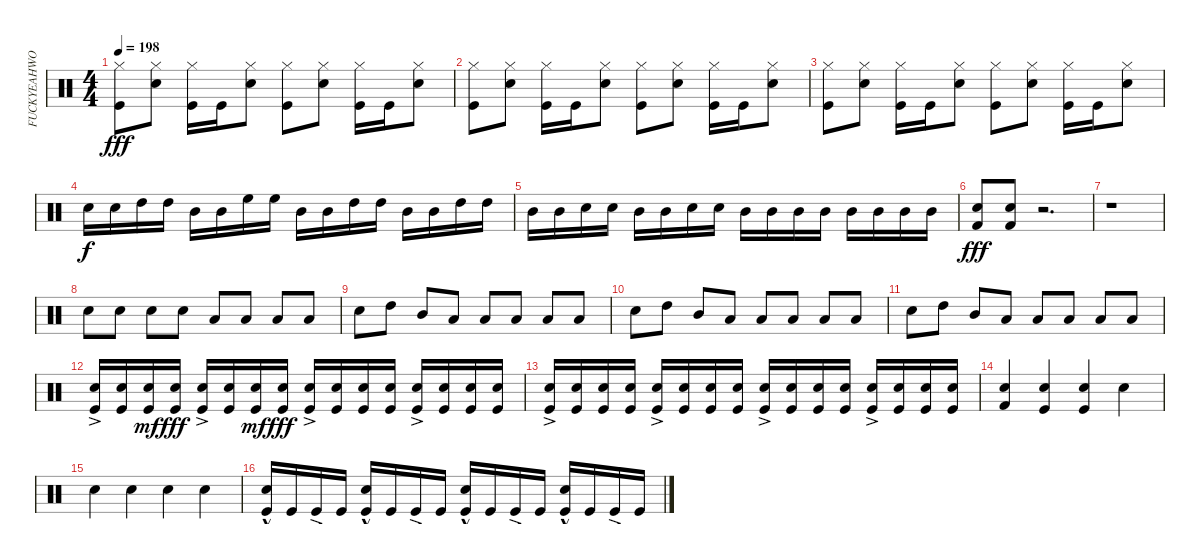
\track ("FUCKYEAHWOOTDAVEMACKINTOSH!(Percussion)" "FUCKYEAHWO") {instrument percussion}
\staff {score}
\articulation defaults
\ts (4 4)
\tempo 198
\clef neutral
\ks c
("Kick (hit)" "Hi-Hat (closed)").8{dy fff} ("Snare (hit) 2" "Hi-Hat (closed)").8 ("Kick (hit)" "Hi-Hat (closed)").16 "Kick (hit)".16 ("Hi-Hat (closed)" "Snare (hit) 2").8 ("Kick (hit)" "Hi-Hat (closed)").8 ("Snare (hit) 2" "Hi-Hat (closed)").8 ("Kick (hit)" "Hi-Hat (closed)").16 "Kick (hit)".16 ("Snare (hit) 2" "Hi-Hat (closed)").8 |
("Kick (hit)" "Hi-Hat (closed)").8 ("Snare (hit) 2" "Hi-Hat (closed)").8 ("Kick (hit)" "Hi-Hat (closed)").16 "Kick (hit)".16 ("Hi-Hat (closed)" "Snare (hit) 2").8 ("Kick (hit)" "Hi-Hat (closed)").8 ("Snare (hit) 2" "Hi-Hat (closed)").8 ("Kick (hit)" "Hi-Hat (closed)").16 "Kick (hit)".16 ("Snare (hit) 2" "Hi-Hat (closed)").8 |
("Kick (hit)" "Hi-Hat (closed)").8 ("Snare (hit) 2" "Hi-Hat (closed)").8 ("Kick (hit)" "Hi-Hat (closed)").16 "Kick (hit)".16 ("Hi-Hat (closed)" "Snare (hit) 2").8 ("Kick (hit)" "Hi-Hat (closed)").8 ("Snare (hit) 2" "Hi-Hat (closed)").8 ("Kick (hit)" "Hi-Hat (closed)").16 "Kick (hit)".16 ("Snare (hit) 2" "Hi-Hat (closed)").8 |
"Snare (hit) 2".16{dy f} "Snare (hit) 2".16 "High Tom (hit)".16 "High Tom (hit)".16 "Mid Tom (hit)".16 "Mid Tom (hit)".16 "High Floor Tom (hit)".16 "High Floor Tom (hit)".16 "Mid Tom (hit)".16 "Mid Tom (hit)".16 "High Tom (hit)".16 "High Tom (hit)".16 "Mid Tom (hit)".16 "Mid Tom (hit)".16 "High Tom (hit)".16 "High Tom (hit)".16 |
"Mid Tom (hit)".16 "Mid Tom (hit)".16 "Snare (hit) 2".16 "Snare (hit) 2".16 "Mid Tom (hit)".16 "Mid Tom (hit)".16 "Snare (hit) 2".16 "Snare (hit) 2".16 "Mid Tom (hit)".16 "Mid Tom (hit)".16 "Mid Tom (hit)".16 "Mid Tom (hit)".16 "Mid Tom (hit)".16 "Mid Tom (hit)".16 "Mid Tom (hit)".16 "Mid Tom (hit)".16 |
("Snare (hit) 2" "Kick (hit) 2").8{dy fff} ("Snare (hit) 2" "Kick (hit) 2").8 r.2{d} |
r.1 |
"Snare (hit) 2".8 "Snare (hit) 2".8 "Snare (hit) 2".8 "Snare (hit) 2".8 "Low Tom (hit)".8 "Low Tom (hit)".8 "Low Tom (hit)".8 "Low Tom (hit)".8 |
"Snare (hit) 2".8 "High Tom (hit)".8 "Mid Tom (hit)".8 "Low Tom (hit)".8 "Low Tom (hit)".8 "Low Tom (hit)".8 "Low Tom (hit)".8 "Low Tom (hit)".8 |
"Snare (hit) 2".8 "High Tom (hit)".8 "Mid Tom (hit)".8 "Low Tom (hit)".8 "Low Tom (hit)".8 "Low Tom (hit)".8 "Low Tom (hit)".8 "Low Tom (hit)".8 |
"Snare (hit) 2".8 "High Tom (hit)".8 "Mid Tom (hit)".8 "Low Tom (hit)".8 "Low Tom (hit)".8 "Low Tom (hit)".8 "Low Tom (hit)".8 "Low Tom (hit)".8 |
("Snare (hit) 2"{ac} "Kick (hit)").16 ("Snare (hit) 2" "Kick (hit)").16 ("Kick (hit)" "Snare (hit) 2").16{dy mf} ("Snare (hit) 2" "Kick (hit)").16{dy fff} ("Snare (hit) 2"{ac} "Kick (hit)").16 ("Snare (hit) 2" "Kick (hit)").16 ("Kick (hit)" "Snare (hit) 2").16{dy mf} ("Snare (hit) 2" "Kick (hit)").16{dy fff} ("Snare (hit) 2"{ac} "Kick (hit)").16 ("Snare (hit) 2" "Kick (hit)").16 ("Snare (hit) 2" "Kick (hit)").16 ("Snare (hit) 2" "Kick (hit)").16 ("Snare (hit) 2"{ac} "Kick (hit)").16 ("Snare (hit) 2" "Kick (hit)").16 ("Snare (hit) 2" "Kick (hit)").16 ("Snare (hit) 2" "Kick (hit)").16 |
("Snare (hit) 2"{ac} "Kick (hit)").16 ("Snare (hit) 2" "Kick (hit)").16 ("Snare (hit) 2" "Kick (hit)").16 ("Snare (hit) 2" "Kick (hit)").16 ("Snare (hit) 2"{ac} "Kick (hit)").16 ("Snare (hit) 2" "Kick (hit)").16 ("Snare (hit) 2" "Kick (hit)").16 ("Snare (hit) 2" "Kick (hit)").16 ("Snare (hit) 2"{ac} "Kick (hit)").16 ("Snare (hit) 2" "Kick (hit)").16 ("Snare (hit) 2" "Kick (hit)").16 ("Snare (hit) 2" "Kick (hit)").16 ("Snare (hit) 2"{ac} "Kick (hit)").16 ("Snare (hit) 2" "Kick (hit)").16 ("Snare (hit) 2" "Kick (hit)").16 ("Snare (hit) 2" "Kick (hit)").16 |
("Kick (hit) 2" "Snare (hit) 2").4 ("Snare (hit) 2" "Kick (hit)").4 ("Snare (hit) 2" "Kick (hit)").4 "Snare (hit) 2".4 |
"Snare (hit) 2".4 "Snare (hit) 2".4 "Snare (hit) 2".4 "Snare (hit) 2".4 |
("Snare (hit) 2" "Kick (hit)"{hac}).16 "Kick (hit)".16 "Kick (hit)"{ac}.16 "Kick (hit)".16 ("Snare (hit) 2" "Kick (hit)"{hac}).16 "Kick (hit)".16 "Kick (hit)"{ac}.16 "Kick (hit)".16 ("Kick (hit)"{hac} "Snare (hit) 2").16 "Kick (hit)".16 "Kick (hit)"{ac}.16 "Kick (hit)".16 ("Snare (hit) 2" "Kick (hit)"{hac}).16 "Kick (hit)".16 "Kick (hit)"{ac}.16 "Kick (hit)".16
